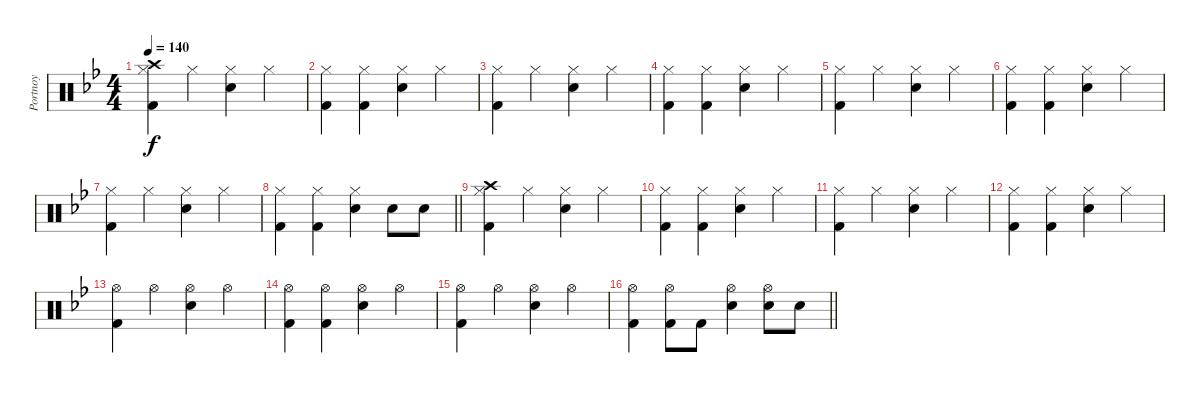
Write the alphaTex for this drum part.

\track ("Portnoy" "Portnoy") {instrument percussion}
\staff {score}
\articulation defaults
\ts (4 4)
\tempo 140
\clef neutral
\ks bb
("Crash high (hit)" "Hi-Hat (closed)" "Kick (hit) 2").4{dy f} "Hi-Hat (closed)".4 ("Hi-Hat (closed)" "Snare (hit) 2").4 "Hi-Hat (closed)".4 |
("Hi-Hat (closed)" "Kick (hit) 2").4 ("Hi-Hat (closed)" "Kick (hit) 2").4 ("Hi-Hat (closed)" "Snare (hit) 2").4 "Hi-Hat (closed)".4 |
("Hi-Hat (closed)" "Kick (hit) 2").4 "Hi-Hat (closed)".4 ("Hi-Hat (closed)" "Snare (hit) 2").4 "Hi-Hat (closed)".4 |
("Hi-Hat (closed)" "Kick (hit) 2").4 ("Hi-Hat (closed)" "Kick (hit) 2").4 ("Hi-Hat (closed)" "Snare (hit) 2").4 "Hi-Hat (closed)".4 |
("Hi-Hat (closed)" "Kick (hit) 2").4 "Hi-Hat (closed)".4 ("Hi-Hat (closed)" "Snare (hit) 2").4 "Hi-Hat (closed)".4 |
("Hi-Hat (closed)" "Kick (hit) 2").4 ("Hi-Hat (closed)" "Kick (hit) 2").4 ("Hi-Hat (closed)" "Snare (hit) 2").4 "Hi-Hat (closed)".4 |
("Hi-Hat (closed)" "Kick (hit) 2").4 "Hi-Hat (closed)".4 ("Hi-Hat (closed)" "Snare (hit) 2").4 "Hi-Hat (closed)".4 |
\barLineRight lightlight
("Hi-Hat (closed)" "Kick (hit) 2").4 ("Hi-Hat (closed)" "Kick (hit) 2").4 ("Hi-Hat (closed)" "Snare (hit) 2").4 "Snare (hit) 2".8 "Snare (hit) 2".8 |
("Crash high (hit)" "Hi-Hat (closed)" "Kick (hit) 2").4 "Hi-Hat (closed)".4 ("Hi-Hat (closed)" "Snare (hit) 2").4 "Hi-Hat (closed)".4 |
("Hi-Hat (closed)" "Kick (hit) 2").4 ("Hi-Hat (closed)" "Kick (hit) 2").4 ("Hi-Hat (closed)" "Snare (hit) 2").4 "Hi-Hat (closed)".4 |
("Hi-Hat (closed)" "Kick (hit) 2").4 "Hi-Hat (closed)".4 ("Hi-Hat (closed)" "Snare (hit) 2").4 "Hi-Hat (closed)".4 |
("Hi-Hat (closed)" "Kick (hit) 2").4 ("Hi-Hat (closed)" "Kick (hit) 2").4 ("Hi-Hat (closed)" "Snare (hit) 2").4 "Hi-Hat (closed)".4 |
("Hi-Hat (open)" "Kick (hit) 2").4 "Hi-Hat (open)".4 ("Hi-Hat (open)" "Snare (hit) 2").4 "Hi-Hat (open)".4 |
("Hi-Hat (open)" "Kick (hit) 2").4 ("Hi-Hat (open)" "Kick (hit) 2").4 ("Hi-Hat (open)" "Snare (hit) 2").4 "Hi-Hat (open)".4 |
("Hi-Hat (open)" "Kick (hit) 2").4 "Hi-Hat (open)".4 ("Hi-Hat (open)" "Snare (hit) 2").4 "Hi-Hat (open)".4 |
\barLineRight lightlight
("Hi-Hat (open)" "Kick (hit) 2").4 ("Hi-Hat (open)" "Kick (hit) 2").8 "Kick (hit) 2".8 ("Hi-Hat (open)" "Snare (hit) 2").4 ("Hi-Hat (open)" "Snare (hit) 2").8 "Snare (hit) 2".8
